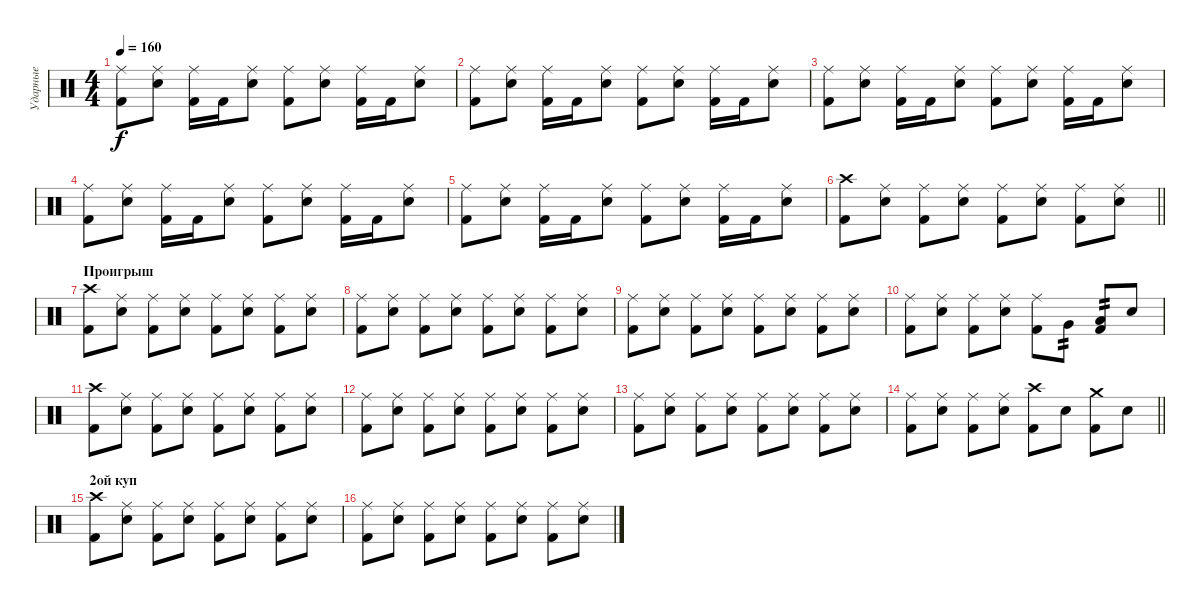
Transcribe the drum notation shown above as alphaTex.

\track ("Ударные" "Ударные") {instrument percussion}
\staff {score}
\articulation defaults
\ts (4 4)
\tempo 160
\clef neutral
\ks c
("Ride (middle)" "Kick (hit) 2").8{dy f} ("Ride (middle)" "Electric Snare (hit)").8 ("Ride (middle)" "Kick (hit) 2").16 "Kick (hit) 2".16 ("Ride (middle)" "Electric Snare (hit)").8 ("Ride (middle)" "Kick (hit) 2").8 ("Ride (middle)" "Electric Snare (hit)").8 ("Ride (middle)" "Kick (hit) 2").16 "Kick (hit) 2".16 ("Ride (middle)" "Electric Snare (hit)").8 |
("Ride (middle)" "Kick (hit) 2").8 ("Ride (middle)" "Electric Snare (hit)").8 ("Ride (middle)" "Kick (hit) 2").16 "Kick (hit) 2".16 ("Ride (middle)" "Electric Snare (hit)").8 ("Ride (middle)" "Kick (hit) 2").8 ("Ride (middle)" "Electric Snare (hit)").8 ("Ride (middle)" "Kick (hit) 2").16 "Kick (hit) 2".16 ("Ride (middle)" "Electric Snare (hit)").8 |
("Ride (middle)" "Kick (hit) 2").8 ("Ride (middle)" "Electric Snare (hit)").8 ("Ride (middle)" "Kick (hit) 2").16 "Kick (hit) 2".16 ("Ride (middle)" "Electric Snare (hit)").8 ("Ride (middle)" "Kick (hit) 2").8 ("Ride (middle)" "Electric Snare (hit)").8 ("Ride (middle)" "Kick (hit) 2").16 "Kick (hit) 2".16 ("Ride (middle)" "Electric Snare (hit)").8 |
("Ride (middle)" "Kick (hit) 2").8 ("Ride (middle)" "Electric Snare (hit)").8 ("Ride (middle)" "Kick (hit) 2").16 "Kick (hit) 2".16 ("Ride (middle)" "Electric Snare (hit)").8 ("Ride (middle)" "Kick (hit) 2").8 ("Ride (middle)" "Electric Snare (hit)").8 ("Ride (middle)" "Kick (hit) 2").16 "Kick (hit) 2".16 ("Ride (middle)" "Electric Snare (hit)").8 |
("Ride (middle)" "Kick (hit) 2").8 ("Ride (middle)" "Electric Snare (hit)").8 ("Ride (middle)" "Kick (hit) 2").16 "Kick (hit) 2".16 ("Ride (middle)" "Electric Snare (hit)").8 ("Ride (middle)" "Kick (hit) 2").8 ("Ride (middle)" "Electric Snare (hit)").8 ("Ride (middle)" "Kick (hit) 2").16 "Kick (hit) 2".16 ("Ride (middle)" "Electric Snare (hit)").8 |
\barLineRight lightlight
("Crash high (hit)" "Kick (hit) 2").8 ("Ride (middle)" "Electric Snare (hit)").8 ("Ride (middle)" "Kick (hit) 2").8 ("Ride (middle)" "Electric Snare (hit)").8 ("Ride (middle)" "Kick (hit) 2").8 ("Ride (middle)" "Electric Snare (hit)").8 ("Ride (middle)" "Kick (hit) 2").8 ("Ride (middle)" "Electric Snare (hit)").8 |
\section ("" "Проигрыш")
("Crash high (hit)" "Kick (hit) 2").8 ("Ride (middle)" "Electric Snare (hit)").8 ("Ride (middle)" "Kick (hit) 2").8 ("Ride (middle)" "Electric Snare (hit)").8 ("Ride (middle)" "Kick (hit) 2").8 ("Ride (middle)" "Electric Snare (hit)").8 ("Ride (middle)" "Kick (hit) 2").8 ("Ride (middle)" "Electric Snare (hit)").8 |
("Ride (middle)" "Kick (hit) 2").8 ("Ride (middle)" "Electric Snare (hit)").8 ("Ride (middle)" "Kick (hit) 2").8 ("Ride (middle)" "Electric Snare (hit)").8 ("Ride (middle)" "Kick (hit) 2").8 ("Ride (middle)" "Electric Snare (hit)").8 ("Ride (middle)" "Kick (hit) 2").8 ("Ride (middle)" "Electric Snare (hit)").8 |
("Ride (middle)" "Kick (hit) 2").8 ("Ride (middle)" "Electric Snare (hit)").8 ("Ride (middle)" "Kick (hit) 2").8 ("Ride (middle)" "Electric Snare (hit)").8 ("Ride (middle)" "Kick (hit) 2").8 ("Ride (middle)" "Electric Snare (hit)").8 ("Ride (middle)" "Kick (hit) 2").8 ("Ride (middle)" "Electric Snare (hit)").8 |
("Ride (middle)" "Kick (hit) 2").8 ("Ride (middle)" "Electric Snare (hit)").8 ("Ride (middle)" "Kick (hit) 2").8 ("Ride (middle)" "Electric Snare (hit)").8 ("Ride (middle)" "Kick (hit) 2").8 "Very Low Tom (hit)".8{tp 2} ("Low Tom (hit)" "Kick (hit) 2").8{tp 2} "Electric Snare (hit)".8 |
("Crash high (hit)" "Kick (hit) 2").8 ("Ride (middle)" "Electric Snare (hit)").8 ("Ride (middle)" "Kick (hit) 2").8 ("Ride (middle)" "Electric Snare (hit)").8 ("Ride (middle)" "Kick (hit) 2").8 ("Ride (middle)" "Electric Snare (hit)").8 ("Ride (middle)" "Kick (hit) 2").8 ("Ride (middle)" "Electric Snare (hit)").8 |
("Ride (middle)" "Kick (hit) 2").8 ("Ride (middle)" "Electric Snare (hit)").8 ("Ride (middle)" "Kick (hit) 2").8 ("Ride (middle)" "Electric Snare (hit)").8 ("Ride (middle)" "Kick (hit) 2").8 ("Ride (middle)" "Electric Snare (hit)").8 ("Ride (middle)" "Kick (hit) 2").8 ("Ride (middle)" "Electric Snare (hit)").8 |
("Ride (middle)" "Kick (hit) 2").8 ("Ride (middle)" "Electric Snare (hit)").8 ("Ride (middle)" "Kick (hit) 2").8 ("Ride (middle)" "Electric Snare (hit)").8 ("Ride (middle)" "Kick (hit) 2").8 ("Ride (middle)" "Electric Snare (hit)").8 ("Ride (middle)" "Kick (hit) 2").8 ("Ride (middle)" "Electric Snare (hit)").8 |
\barLineRight lightlight
("Ride (middle)" "Kick (hit) 2").8 ("Ride (middle)" "Electric Snare (hit)").8 ("Ride (middle)" "Kick (hit) 2").8 ("Ride (middle)" "Electric Snare (hit)").8 ("Crash high (hit)" "Kick (hit) 2").8 "Electric Snare (hit)".8 ("Crash medium (hit)" "Kick (hit) 2").8 "Electric Snare (hit)".8 |
\section ("" "2ой куп")
("Crash high (hit)" "Kick (hit) 2").8 ("Ride (middle)" "Electric Snare (hit)").8 ("Ride (middle)" "Kick (hit) 2").8 ("Ride (middle)" "Electric Snare (hit)").8 ("Ride (middle)" "Kick (hit) 2").8 ("Ride (middle)" "Electric Snare (hit)").8 ("Ride (middle)" "Kick (hit) 2").8 ("Ride (middle)" "Electric Snare (hit)").8 |
("Ride (middle)" "Kick (hit) 2").8 ("Ride (middle)" "Electric Snare (hit)").8 ("Ride (middle)" "Kick (hit) 2").8 ("Ride (middle)" "Electric Snare (hit)").8 ("Ride (middle)" "Kick (hit) 2").8 ("Ride (middle)" "Electric Snare (hit)").8 ("Ride (middle)" "Kick (hit) 2").8 ("Ride (middle)" "Electric Snare (hit)").8
